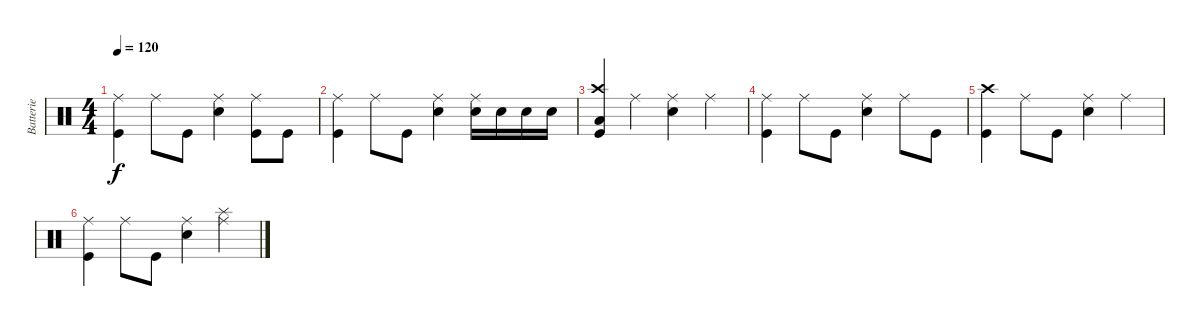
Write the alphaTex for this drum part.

\track ("Batterie" "Batterie") {instrument percussion}
\staff {score}
\articulation defaults
\ts (4 4)
\tempo 120
\clef neutral
\ks c
("Ride (middle)" "Kick (hit)").4{dy f} "Ride (middle)".8 "Kick (hit)".8 ("Ride (middle)" "Electric Snare (hit)").4 ("Ride (middle)" "Kick (hit)").8 "Kick (hit)".8 |
("Ride (middle)" "Kick (hit)").4 "Ride (middle)".8 "Kick (hit)".8 ("Ride (middle)" "Electric Snare (hit)").4 ("Ride (middle)" "Electric Snare (hit)").16 "Electric Snare (hit)".16 "Electric Snare (hit)".16 "Electric Snare (hit)".16 |
("Crash high (hit)" "Low Floor Tom (hit)" "Kick (hit)").4 "Ride (middle)".4 ("Ride (middle)" "Electric Snare (hit)").4 "Ride (middle)".4 |
("Ride (middle)" "Kick (hit)").4 "Ride (middle)".8 "Kick (hit)".8 ("Ride (middle)" "Electric Snare (hit)").4 "Ride (middle)".8 "Kick (hit)".8 |
("Crash high (hit)" "Kick (hit)").4 "Ride (middle)".8 "Kick (hit)".8 ("Ride (middle)" "Electric Snare (hit)").4 "Ride (middle)".4 |
("Ride (middle)" "Kick (hit)").4 "Ride (middle)".8 "Kick (hit)".8 ("Ride (middle)" "Electric Snare (hit)").4 ("Ride (middle)" "Splash (hit)").4
